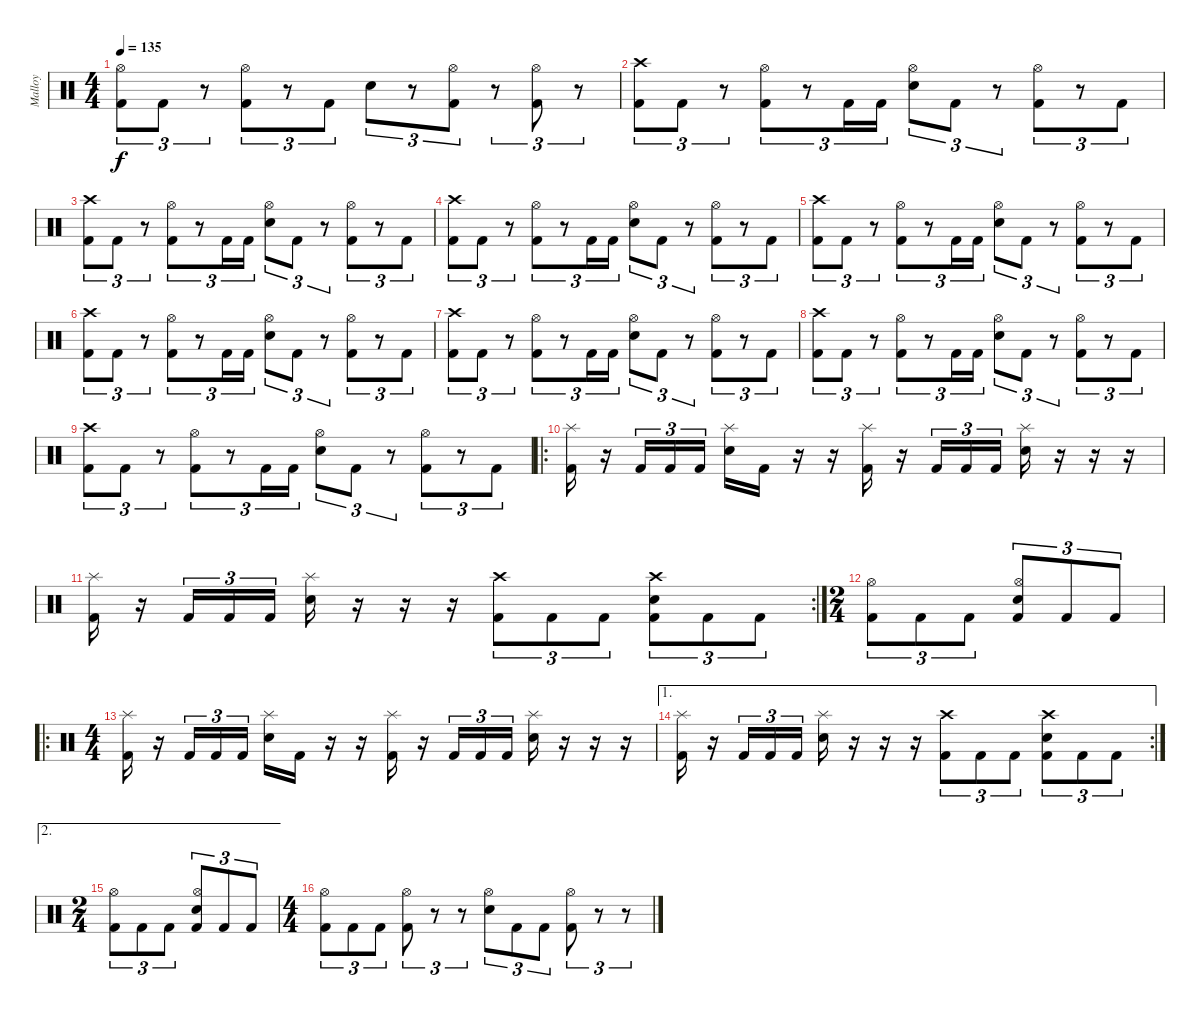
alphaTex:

\track ("Malloy" "Malloy") {instrument percussion}
\staff {score}
\articulation defaults
\ts (4 4)
\tempo 135
\clef neutral
\ks c
("Kick (hit) 2" "Hi-Hat (open)").8{tu (3 2) dy f} "Kick (hit) 2".8{tu (3 2)} r.8{tu (3 2)} ("Kick (hit) 2" "Hi-Hat (open)").8{tu (3 2)} r.8{tu (3 2)} "Kick (hit) 2".8{tu (3 2)} "Electric Snare (hit)".8{tu (3 2)} r.8{tu (3 2)} ("Kick (hit) 2" "Hi-Hat (open)").8{tu (3 2)} r.8{tu (3 2)} ("Kick (hit) 2" "Hi-Hat (open)").8{tu (3 2)} r.8{tu (3 2)} |
("Kick (hit) 2" "Crash high (hit)").8{tu (3 2)} "Kick (hit) 2".8{tu (3 2)} r.8{tu (3 2)} ("Kick (hit) 2" "Hi-Hat (open)").8{tu (3 2)} r.8{tu (3 2)} "Kick (hit) 2".16{tu (3 2)} "Kick (hit) 2".16{tu (3 2)} ("Electric Snare (hit)" "Hi-Hat (open)").8{tu (3 2)} "Kick (hit) 2".8{tu (3 2)} r.8{tu (3 2)} ("Kick (hit) 2" "Hi-Hat (open)").8{tu (3 2)} r.8{tu (3 2)} "Kick (hit) 2".8{tu (3 2)} |
("Kick (hit) 2" "Crash high (hit)").8{tu (3 2)} "Kick (hit) 2".8{tu (3 2)} r.8{tu (3 2)} ("Kick (hit) 2" "Hi-Hat (open)").8{tu (3 2)} r.8{tu (3 2)} "Kick (hit) 2".16{tu (3 2)} "Kick (hit) 2".16{tu (3 2)} ("Electric Snare (hit)" "Hi-Hat (open)").8{tu (3 2)} "Kick (hit) 2".8{tu (3 2)} r.8{tu (3 2)} ("Kick (hit) 2" "Hi-Hat (open)").8{tu (3 2)} r.8{tu (3 2)} "Kick (hit) 2".8{tu (3 2)} |
("Kick (hit) 2" "Crash high (hit)").8{tu (3 2)} "Kick (hit) 2".8{tu (3 2)} r.8{tu (3 2)} ("Kick (hit) 2" "Hi-Hat (open)").8{tu (3 2)} r.8{tu (3 2)} "Kick (hit) 2".16{tu (3 2)} "Kick (hit) 2".16{tu (3 2)} ("Electric Snare (hit)" "Hi-Hat (open)").8{tu (3 2)} "Kick (hit) 2".8{tu (3 2)} r.8{tu (3 2)} ("Kick (hit) 2" "Hi-Hat (open)").8{tu (3 2)} r.8{tu (3 2)} "Kick (hit) 2".8{tu (3 2)} |
("Kick (hit) 2" "Crash high (hit)").8{tu (3 2)} "Kick (hit) 2".8{tu (3 2)} r.8{tu (3 2)} ("Kick (hit) 2" "Hi-Hat (open)").8{tu (3 2)} r.8{tu (3 2)} "Kick (hit) 2".16{tu (3 2)} "Kick (hit) 2".16{tu (3 2)} ("Electric Snare (hit)" "Hi-Hat (open)").8{tu (3 2)} "Kick (hit) 2".8{tu (3 2)} r.8{tu (3 2)} ("Kick (hit) 2" "Hi-Hat (open)").8{tu (3 2)} r.8{tu (3 2)} "Kick (hit) 2".8{tu (3 2)} |
("Kick (hit) 2" "Crash high (hit)").8{tu (3 2)} "Kick (hit) 2".8{tu (3 2)} r.8{tu (3 2)} ("Kick (hit) 2" "Hi-Hat (open)").8{tu (3 2)} r.8{tu (3 2)} "Kick (hit) 2".16{tu (3 2)} "Kick (hit) 2".16{tu (3 2)} ("Electric Snare (hit)" "Hi-Hat (open)").8{tu (3 2)} "Kick (hit) 2".8{tu (3 2)} r.8{tu (3 2)} ("Kick (hit) 2" "Hi-Hat (open)").8{tu (3 2)} r.8{tu (3 2)} "Kick (hit) 2".8{tu (3 2)} |
("Kick (hit) 2" "Crash high (hit)").8{tu (3 2)} "Kick (hit) 2".8{tu (3 2)} r.8{tu (3 2)} ("Kick (hit) 2" "Hi-Hat (open)").8{tu (3 2)} r.8{tu (3 2)} "Kick (hit) 2".16{tu (3 2)} "Kick (hit) 2".16{tu (3 2)} ("Electric Snare (hit)" "Hi-Hat (open)").8{tu (3 2)} "Kick (hit) 2".8{tu (3 2)} r.8{tu (3 2)} ("Kick (hit) 2" "Hi-Hat (open)").8{tu (3 2)} r.8{tu (3 2)} "Kick (hit) 2".8{tu (3 2)} |
("Kick (hit) 2" "Crash high (hit)").8{tu (3 2)} "Kick (hit) 2".8{tu (3 2)} r.8{tu (3 2)} ("Kick (hit) 2" "Hi-Hat (open)").8{tu (3 2)} r.8{tu (3 2)} "Kick (hit) 2".16{tu (3 2)} "Kick (hit) 2".16{tu (3 2)} ("Electric Snare (hit)" "Hi-Hat (open)").8{tu (3 2)} "Kick (hit) 2".8{tu (3 2)} r.8{tu (3 2)} ("Kick (hit) 2" "Hi-Hat (open)").8{tu (3 2)} r.8{tu (3 2)} "Kick (hit) 2".8{tu (3 2)} |
("Kick (hit) 2" "Crash high (hit)").8{tu (3 2)} "Kick (hit) 2".8{tu (3 2)} r.8{tu (3 2)} ("Kick (hit) 2" "Hi-Hat (open)").8{tu (3 2)} r.8{tu (3 2)} "Kick (hit) 2".16{tu (3 2)} "Kick (hit) 2".16{tu (3 2)} ("Electric Snare (hit)" "Hi-Hat (open)").8{tu (3 2)} "Kick (hit) 2".8{tu (3 2)} r.8{tu (3 2)} ("Kick (hit) 2" "Hi-Hat (open)").8{tu (3 2)} r.8{tu (3 2)} "Kick (hit) 2".8{tu (3 2)} |
\ro
("Kick (hit) 2" "Splash (hit)").16 r.16 "Kick (hit) 2".16{tu (3 2)} "Kick (hit) 2".16{tu (3 2)} "Kick (hit) 2".16{tu (3 2)} ("Electric Snare (hit)" "Splash (hit)").16 "Kick (hit) 2".16 r.16 r.16 ("Kick (hit) 2" "Splash (hit)").16 r.16 "Kick (hit) 2".16{tu (3 2)} "Kick (hit) 2".16{tu (3 2)} "Kick (hit) 2".16{tu (3 2)} ("Electric Snare (hit)" "Splash (hit)").16 r.16 r.16 r.16 |
\rc 2
("Kick (hit) 2" "Splash (hit)").16 r.16 "Kick (hit) 2".16{tu (3 2)} "Kick (hit) 2".16{tu (3 2)} "Kick (hit) 2".16{tu (3 2)} ("Electric Snare (hit)" "Splash (hit)").16 r.16 r.16 r.16 ("Kick (hit) 2" "Crash high (hit)").8{tu (3 2)} "Kick (hit) 2".8{tu (3 2)} "Kick (hit) 2".8{tu (3 2)} ("Kick (hit) 2" "Electric Snare (hit)" "Crash high (hit)").8{tu (3 2)} "Kick (hit) 2".8{tu (3 2)} "Kick (hit) 2".8{tu (3 2)} |
\ts (2 4)
("Kick (hit) 2" "Hi-Hat (open)").8{tu (3 2)} "Kick (hit) 2".8{tu (3 2)} "Kick (hit) 2".8{tu (3 2)} ("Kick (hit) 2" "Electric Snare (hit)" "Hi-Hat (open)").8{tu (3 2)} "Kick (hit) 2".8{tu (3 2)} "Kick (hit) 2".8{tu (3 2)} |
\ro
\ts (4 4)
("Kick (hit) 2" "Splash (hit)").16 r.16 "Kick (hit) 2".16{tu (3 2)} "Kick (hit) 2".16{tu (3 2)} "Kick (hit) 2".16{tu (3 2)} ("Electric Snare (hit)" "Splash (hit)").16 "Kick (hit) 2".16 r.16 r.16 ("Kick (hit) 2" "Splash (hit)").16 r.16 "Kick (hit) 2".16{tu (3 2)} "Kick (hit) 2".16{tu (3 2)} "Kick (hit) 2".16{tu (3 2)} ("Electric Snare (hit)" "Splash (hit)").16 r.16 r.16 r.16 |
\ae 1
\rc 2
("Kick (hit) 2" "Splash (hit)").16 r.16 "Kick (hit) 2".16{tu (3 2)} "Kick (hit) 2".16{tu (3 2)} "Kick (hit) 2".16{tu (3 2)} ("Electric Snare (hit)" "Splash (hit)").16 r.16 r.16 r.16 ("Kick (hit) 2" "Crash high (hit)").8{tu (3 2)} "Kick (hit) 2".8{tu (3 2)} "Kick (hit) 2".8{tu (3 2)} ("Kick (hit) 2" "Electric Snare (hit)" "Crash high (hit)").8{tu (3 2)} "Kick (hit) 2".8{tu (3 2)} "Kick (hit) 2".8{tu (3 2)} |
\ae 2
\ts (2 4)
("Kick (hit) 2" "Hi-Hat (open)").8{tu (3 2)} "Kick (hit) 2".8{tu (3 2)} "Kick (hit) 2".8{tu (3 2)} ("Kick (hit) 2" "Electric Snare (hit)" "Hi-Hat (open)").8{tu (3 2)} "Kick (hit) 2".8{tu (3 2)} "Kick (hit) 2".8{tu (3 2)} |
\ts (4 4)
("Kick (hit) 2" "Hi-Hat (open)").8{tu (3 2)} "Kick (hit) 2".8{tu (3 2)} "Kick (hit) 2".8{tu (3 2)} ("Kick (hit) 2" "Hi-Hat (open)").8{tu (3 2)} r.8{tu (3 2)} r.8{tu (3 2)} ("Electric Snare (hit)" "Hi-Hat (open)").8{tu (3 2)} "Kick (hit) 2".8{tu (3 2)} "Kick (hit) 2".8{tu (3 2)} ("Kick (hit) 2" "Hi-Hat (open)").8{tu (3 2)} r.8{tu (3 2)} r.8{tu (3 2)}
